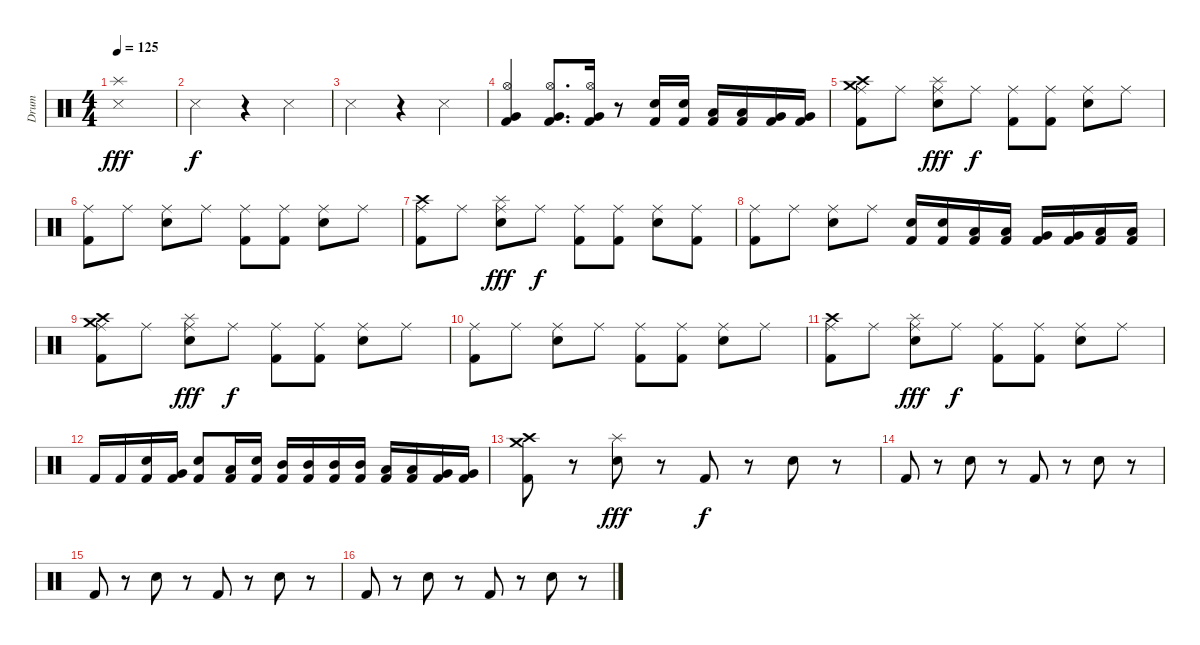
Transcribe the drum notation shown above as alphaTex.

\track ("Drum" "Drum") {instrument percussion}
\staff {score}
\articulation defaults
\ts (4 4)
\tempo 125
\clef neutral
\ks c
("Snare (side stick) 3" "Splash (hit)").1{dy fff} |
"Snare (side stick) 3".2{dy f} r.4 "Snare (side stick) 3".4 |
"Snare (side stick) 3".2 r.4 "Metronome (hit)".4 |
("Very Low Tom (hit)" "Hi-Hat (open)" "Kick (hit) 2").4 ("Very Low Tom (hit)" "Hi-Hat (open)" "Kick (hit) 2").8{d} ("Very Low Tom (hit)" "Hi-Hat (open)" "Kick (hit) 2").16 r.8 ("Electric Snare (hit)" "Kick (hit) 2").16 ("Electric Snare (hit)" "Kick (hit) 2").16 ("Low Tom (hit)" "Kick (hit) 2").16 ("Low Tom (hit)" "Kick (hit) 2").16 ("Very Low Tom (hit)" "Kick (hit) 2").16 ("Very Low Tom (hit)" "Kick (hit) 2").16 |
("Crash high (hit)" "Crash medium (hit)" "Ride (middle)" "Kick (hit) 2").8 "Ride (middle)".8 ("Electric Snare (hit)" "Splash (hit)" "Ride (middle)").8{dy fff} "Ride (middle)".8{dy f} ("Ride (middle)" "Kick (hit) 2").8 ("Ride (middle)" "Kick (hit) 2").8 ("Electric Snare (hit)" "Ride (middle)").8 "Ride (middle)".8 |
("Ride (middle)" "Kick (hit) 2").8 "Ride (middle)".8 ("Electric Snare (hit)" "Ride (middle)").8 "Ride (middle)".8 ("Ride (middle)" "Kick (hit) 2").8 ("Ride (middle)" "Kick (hit) 2").8 ("Electric Snare (hit)" "Ride (middle)").8 "Ride (middle)".8 |
("Crash high (hit)" "Ride (middle)" "Kick (hit) 2").8 "Ride (middle)".8 ("Electric Snare (hit)" "Splash (hit)" "Ride (middle)").8{dy fff} "Ride (middle)".8{dy f} ("Ride (middle)" "Kick (hit) 2").8 ("Ride (middle)" "Kick (hit) 2").8 ("Electric Snare (hit)" "Ride (middle)").8 ("Ride (middle)" "Kick (hit) 2").8 |
("Ride (middle)" "Kick (hit) 2").8 "Ride (middle)".8 ("Electric Snare (hit)" "Ride (middle)").8 "Ride (middle)".8 ("Electric Snare (hit)" "Kick (hit) 2").16 ("Electric Snare (hit)" "Kick (hit) 2").16 ("Low Tom (hit)" "Kick (hit) 2").16 ("Low Tom (hit)" "Kick (hit) 2").16 ("Very Low Tom (hit)" "Kick (hit) 2").16 ("Very Low Tom (hit)" "Kick (hit) 2").16 ("Low Floor Tom (hit)" "Kick (hit) 2").16 ("Low Floor Tom (hit)" "Kick (hit) 2").16 |
("Crash high (hit)" "Crash medium (hit)" "Ride (middle)" "Kick (hit) 2").8 "Ride (middle)".8 ("Electric Snare (hit)" "Splash (hit)" "Ride (middle)").8{dy fff} "Ride (middle)".8{dy f} ("Ride (middle)" "Kick (hit) 2").8 ("Ride (middle)" "Kick (hit) 2").8 ("Electric Snare (hit)" "Ride (middle)").8 "Ride (middle)".8 |
("Ride (middle)" "Kick (hit) 2").8 "Ride (middle)".8 ("Electric Snare (hit)" "Ride (middle)").8 "Ride (middle)".8 ("Ride (middle)" "Kick (hit) 2").8 ("Ride (middle)" "Kick (hit) 2").8 ("Electric Snare (hit)" "Ride (middle)").8 "Ride (middle)".8 |
("Crash high (hit)" "Ride (middle)" "Kick (hit) 2").8 "Ride (middle)".8 ("Electric Snare (hit)" "Splash (hit)" "Ride (middle)").8{dy fff} "Ride (middle)".8{dy f} ("Ride (middle)" "Kick (hit) 2").8 ("Ride (middle)" "Kick (hit) 2").8 ("Electric Snare (hit)" "Ride (middle)").8 "Ride (middle)".8 |
"Kick (hit) 2".16 "Kick (hit) 2".16 ("Electric Snare (hit)" "Kick (hit) 2").16 ("Very Low Tom (hit)" "Kick (hit) 2").16 ("Electric Snare (hit)" "Kick (hit) 2").8 ("Low Floor Tom (hit)" "Kick (hit) 2").16 ("Electric Snare (hit)" "Kick (hit) 2").16 ("Mid Tom (hit)" "Kick (hit) 2").16 ("Mid Tom (hit)" "Kick (hit) 2").16 ("Mid Tom (hit)" "Kick (hit) 2").16 ("Mid Tom (hit)" "Kick (hit) 2").16 ("Low Tom (hit)" "Kick (hit) 2").16 ("Low Tom (hit)" "Kick (hit) 2").16 ("Very Low Tom (hit)" "Kick (hit) 2").16 ("Very Low Tom (hit)" "Kick (hit) 2").16 |
("Crash medium (hit)" "Crash high (hit)" "Kick (hit) 2").8 r.8 ("Electric Snare (hit)" "Splash (hit)").8{dy fff} r.8 "Kick (hit) 2".8{dy f} r.8 "Electric Snare (hit)".8 r.8 |
"Kick (hit) 2".8 r.8 "Electric Snare (hit)".8 r.8 "Kick (hit) 2".8 r.8 "Electric Snare (hit)".8 r.8 |
"Kick (hit) 2".8 r.8 "Electric Snare (hit)".8 r.8 "Kick (hit) 2".8 r.8 "Electric Snare (hit)".8 r.8 |
"Kick (hit) 2".8 r.8 "Electric Snare (hit)".8 r.8 "Kick (hit) 2".8 r.8 "Electric Snare (hit)".8 r.8
